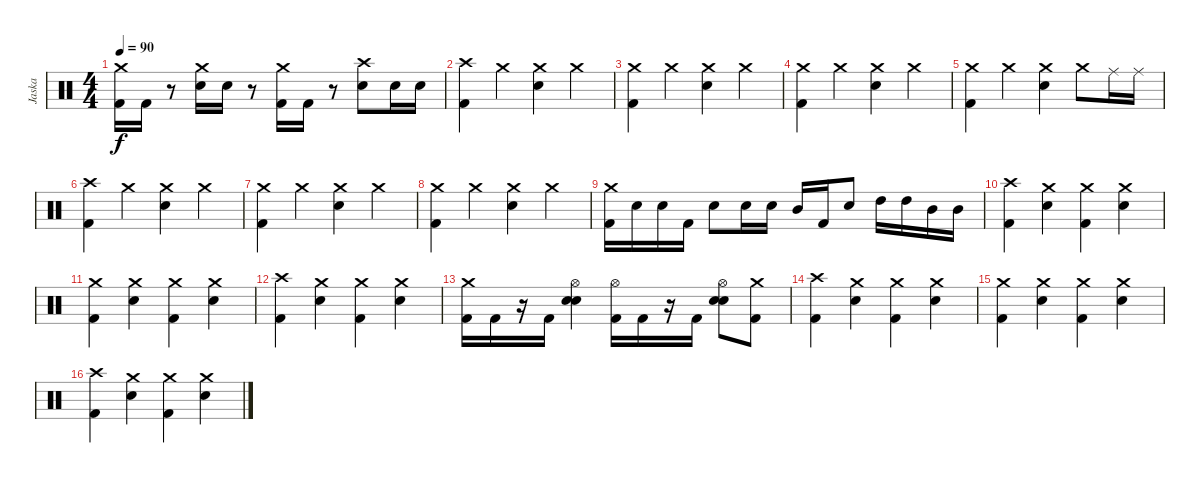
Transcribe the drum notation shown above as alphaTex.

\track ("Jaska" "Jaska") {instrument percussion}
\staff {score}
\articulation defaults
\ts (4 4)
\tempo 90
\clef neutral
\ks c
("Crash medium (hit)" "Kick (hit) 2").16{dy f} "Kick (hit) 2".16 r.8 ("Crash medium (hit)" "Snare (hit) 2").16 "Snare (hit) 2".16 r.8 ("Crash medium (hit)" "Kick (hit) 2").16 "Kick (hit) 2".16 r.8 ("Crash high (hit)" "Snare (hit) 2").8 "Snare (hit) 2".16 "Snare (hit) 2".16 |
("Crash high (hit)" "Kick (hit) 2").4 "Crash medium (hit)".4 ("Crash medium (hit)" "Snare (hit) 2").4 "Crash medium (hit)".4 |
("Crash medium (hit)" "Kick (hit) 2").4 "Crash medium (hit)".4 ("Crash medium (hit)" "Snare (hit) 2").4 "Crash medium (hit)".4 |
("Crash medium (hit)" "Kick (hit) 2").4 "Crash medium (hit)".4 ("Crash medium (hit)" "Snare (hit) 2").4 "Crash medium (hit)".4 |
("Crash medium (hit)" "Kick (hit) 2").4 "Crash medium (hit)".4 ("Crash medium (hit)" "Snare (hit) 2").4 "Crash medium (hit)".8 "Ride (middle)".16 "Ride (middle)".16 |
("Crash high (hit)" "Kick (hit) 2").4 "Crash medium (hit)".4 ("Crash medium (hit)" "Snare (hit) 2").4 "Crash medium (hit)".4 |
("Crash medium (hit)" "Kick (hit) 2").4 "Crash medium (hit)".4 ("Crash medium (hit)" "Snare (hit) 2").4 "Crash medium (hit)".4 |
("Crash medium (hit)" "Kick (hit) 2").4 "Crash medium (hit)".4 ("Crash medium (hit)" "Snare (hit) 2").4 "Crash medium (hit)".4 |
("Crash medium (hit)" "Kick (hit) 2").16 "Snare (hit) 2".16 "Snare (hit) 2".16 "Kick (hit) 2".16 "Snare (hit) 2".8 "Snare (hit) 2".16 "Snare (hit) 2".16 "Mid Tom (hit)".16 "Kick (hit) 2".16 "Snare (hit) 2".8 "High Tom (hit)".16 "High Tom (hit)".16 "Mid Tom (hit)".16 "Mid Tom (hit)".16 |
("Crash high (hit)" "Kick (hit) 2").4 ("Crash medium (hit)" "Snare (hit) 2").4 ("Crash medium (hit)" "Kick (hit) 2").4 ("Crash medium (hit)" "Snare (hit) 2").4 |
("Crash medium (hit)" "Kick (hit) 2").4 ("Crash medium (hit)" "Snare (hit) 2").4 ("Crash medium (hit)" "Kick (hit) 2").4 ("Crash medium (hit)" "Snare (hit) 2").4 |
("Crash high (hit)" "Kick (hit) 2").4 ("Crash medium (hit)" "Snare (hit) 2").4 ("Crash medium (hit)" "Kick (hit) 2").4 ("Crash medium (hit)" "Snare (hit) 2").4 |
("Crash medium (hit)" "Kick (hit) 2").16 "Kick (hit) 2".16 r.16 "Kick (hit) 2".16 ("Hi-Hat (open)" "Snare (hit) 2" "Snare (hit) 2").4 ("Hi-Hat (open)" "Kick (hit) 2").16 "Kick (hit) 2".16 r.16 "Kick (hit) 2".16 ("Hi-Hat (open)" "Snare (hit) 2" "Snare (hit) 2").8 ("Crash medium (hit)" "Kick (hit) 2").8 |
("Crash high (hit)" "Kick (hit) 2").4 ("Crash medium (hit)" "Snare (hit) 2").4 ("Crash medium (hit)" "Kick (hit) 2").4 ("Crash medium (hit)" "Snare (hit) 2").4 |
("Crash medium (hit)" "Kick (hit) 2").4 ("Crash medium (hit)" "Snare (hit) 2").4 ("Crash medium (hit)" "Kick (hit) 2").4 ("Crash medium (hit)" "Snare (hit) 2").4 |
("Crash high (hit)" "Kick (hit) 2").4 ("Crash medium (hit)" "Snare (hit) 2").4 ("Crash medium (hit)" "Kick (hit) 2").4 ("Crash medium (hit)" "Snare (hit) 2").4
